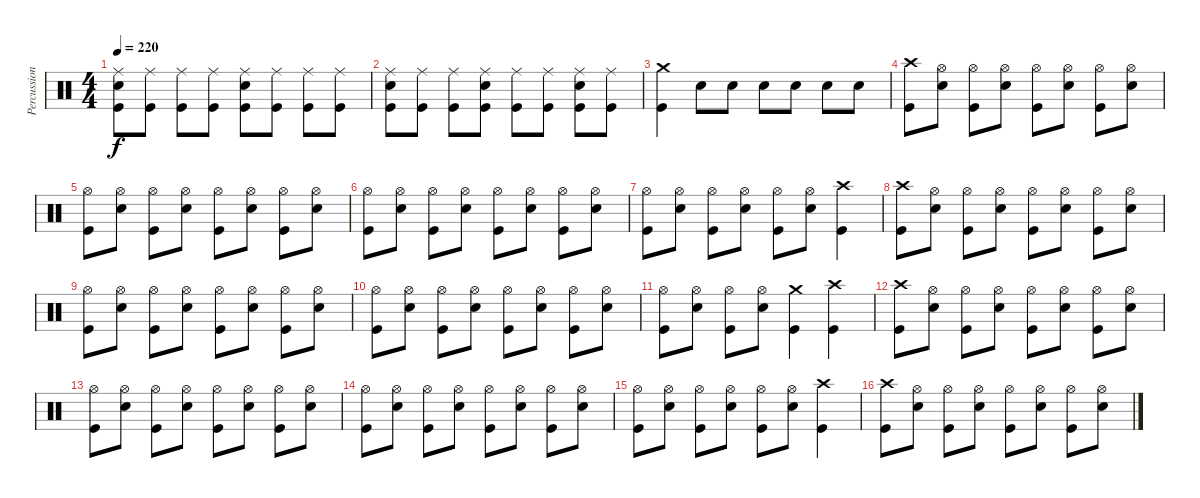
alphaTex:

\track ("Percussion" "Percussion") {instrument percussion}
\staff {score}
\articulation defaults
\ts (4 4)
\tempo 220
\clef neutral
\ks c
("Ride (middle)" "Snare (hit) 2" "Kick (hit)").8{dy f} ("Ride (middle)" "Kick (hit)").8 ("Ride (middle)" "Kick (hit)").8 ("Ride (middle)" "Kick (hit)").8 ("Ride (middle)" "Snare (hit) 2" "Kick (hit)").8 ("Ride (middle)" "Kick (hit)").8 ("Ride (middle)" "Kick (hit)").8 ("Ride (middle)" "Kick (hit)").8 |
("Ride (middle)" "Snare (hit) 2" "Kick (hit)").8 ("Ride (middle)" "Kick (hit)").8 ("Ride (middle)" "Kick (hit)").8 ("Ride (middle)" "Snare (hit) 2" "Kick (hit)").8 ("Ride (middle)" "Kick (hit)").8 ("Ride (middle)" "Kick (hit)").8 ("Ride (middle)" "Snare (hit) 2" "Kick (hit)").8 ("Ride (middle)" "Kick (hit)").8 |
("Crash medium (hit)" "Kick (hit)").4 "Snare (hit) 2".8 "Snare (hit) 2".8 "Snare (hit) 2".8 "Snare (hit) 2".8 "Snare (hit) 2".8 "Snare (hit) 2".8 |
("Crash high (hit)" "Kick (hit)").8 ("Hi-Hat (open)" "Snare (hit) 2").8 ("Hi-Hat (open)" "Kick (hit)").8 ("Hi-Hat (open)" "Snare (hit) 2").8 ("Hi-Hat (open)" "Kick (hit)").8 ("Hi-Hat (open)" "Snare (hit) 2").8 ("Hi-Hat (open)" "Kick (hit)").8 ("Hi-Hat (open)" "Snare (hit) 2").8 |
("Hi-Hat (open)" "Kick (hit)").8 ("Hi-Hat (open)" "Snare (hit) 2").8 ("Hi-Hat (open)" "Kick (hit)").8 ("Hi-Hat (open)" "Snare (hit) 2").8 ("Hi-Hat (open)" "Kick (hit)").8 ("Hi-Hat (open)" "Snare (hit) 2").8 ("Hi-Hat (open)" "Kick (hit)").8 ("Hi-Hat (open)" "Snare (hit) 2").8 |
("Hi-Hat (open)" "Kick (hit)").8 ("Hi-Hat (open)" "Snare (hit) 2").8 ("Hi-Hat (open)" "Kick (hit)").8 ("Hi-Hat (open)" "Snare (hit) 2").8 ("Hi-Hat (open)" "Kick (hit)").8 ("Hi-Hat (open)" "Snare (hit) 2").8 ("Hi-Hat (open)" "Kick (hit)").8 ("Hi-Hat (open)" "Snare (hit) 2").8 |
("Hi-Hat (open)" "Kick (hit)").8 ("Hi-Hat (open)" "Snare (hit) 2").8 ("Hi-Hat (open)" "Kick (hit)").8 ("Hi-Hat (open)" "Snare (hit) 2").8 ("Hi-Hat (open)" "Kick (hit)").8 ("Hi-Hat (open)" "Snare (hit) 2").8 ("Crash high (hit)" "Kick (hit)").4 |
("Crash high (hit)" "Kick (hit)").8 ("Hi-Hat (open)" "Snare (hit) 2").8 ("Hi-Hat (open)" "Kick (hit)").8 ("Hi-Hat (open)" "Snare (hit) 2").8 ("Hi-Hat (open)" "Kick (hit)").8 ("Hi-Hat (open)" "Snare (hit) 2").8 ("Hi-Hat (open)" "Kick (hit)").8 ("Hi-Hat (open)" "Snare (hit) 2").8 |
("Hi-Hat (open)" "Kick (hit)").8 ("Hi-Hat (open)" "Snare (hit) 2").8 ("Hi-Hat (open)" "Kick (hit)").8 ("Hi-Hat (open)" "Snare (hit) 2").8 ("Hi-Hat (open)" "Kick (hit)").8 ("Hi-Hat (open)" "Snare (hit) 2").8 ("Hi-Hat (open)" "Kick (hit)").8 ("Hi-Hat (open)" "Snare (hit) 2").8 |
("Hi-Hat (open)" "Kick (hit)").8 ("Hi-Hat (open)" "Snare (hit) 2").8 ("Hi-Hat (open)" "Kick (hit)").8 ("Hi-Hat (open)" "Snare (hit) 2").8 ("Hi-Hat (open)" "Kick (hit)").8 ("Hi-Hat (open)" "Snare (hit) 2").8 ("Hi-Hat (open)" "Kick (hit)").8 ("Hi-Hat (open)" "Snare (hit) 2").8 |
("Hi-Hat (open)" "Kick (hit)").8 ("Hi-Hat (open)" "Snare (hit) 2").8 ("Hi-Hat (open)" "Kick (hit)").8 ("Hi-Hat (open)" "Snare (hit) 2").8 ("Crash medium (hit)" "Kick (hit)").4 ("Crash high (hit)" "Kick (hit)").4 |
("Crash high (hit)" "Kick (hit)").8 ("Hi-Hat (open)" "Snare (hit) 2").8 ("Hi-Hat (open)" "Kick (hit)").8 ("Hi-Hat (open)" "Snare (hit) 2").8 ("Hi-Hat (open)" "Kick (hit)").8 ("Hi-Hat (open)" "Snare (hit) 2").8 ("Hi-Hat (open)" "Kick (hit)").8 ("Hi-Hat (open)" "Snare (hit) 2").8 |
("Hi-Hat (open)" "Kick (hit)").8 ("Hi-Hat (open)" "Snare (hit) 2").8 ("Hi-Hat (open)" "Kick (hit)").8 ("Hi-Hat (open)" "Snare (hit) 2").8 ("Hi-Hat (open)" "Kick (hit)").8 ("Hi-Hat (open)" "Snare (hit) 2").8 ("Hi-Hat (open)" "Kick (hit)").8 ("Hi-Hat (open)" "Snare (hit) 2").8 |
("Hi-Hat (open)" "Kick (hit)").8 ("Hi-Hat (open)" "Snare (hit) 2").8 ("Hi-Hat (open)" "Kick (hit)").8 ("Hi-Hat (open)" "Snare (hit) 2").8 ("Hi-Hat (open)" "Kick (hit)").8 ("Hi-Hat (open)" "Snare (hit) 2").8 ("Hi-Hat (open)" "Kick (hit)").8 ("Hi-Hat (open)" "Snare (hit) 2").8 |
("Hi-Hat (open)" "Kick (hit)").8 ("Hi-Hat (open)" "Snare (hit) 2").8 ("Hi-Hat (open)" "Kick (hit)").8 ("Hi-Hat (open)" "Snare (hit) 2").8 ("Hi-Hat (open)" "Kick (hit)").8 ("Hi-Hat (open)" "Snare (hit) 2").8 ("Crash high (hit)" "Kick (hit)").4 |
("Crash high (hit)" "Kick (hit)").8 ("Hi-Hat (open)" "Snare (hit) 2").8 ("Hi-Hat (open)" "Kick (hit)").8 ("Hi-Hat (open)" "Snare (hit) 2").8 ("Hi-Hat (open)" "Kick (hit)").8 ("Hi-Hat (open)" "Snare (hit) 2").8 ("Hi-Hat (open)" "Kick (hit)").8 ("Hi-Hat (open)" "Snare (hit) 2").8
